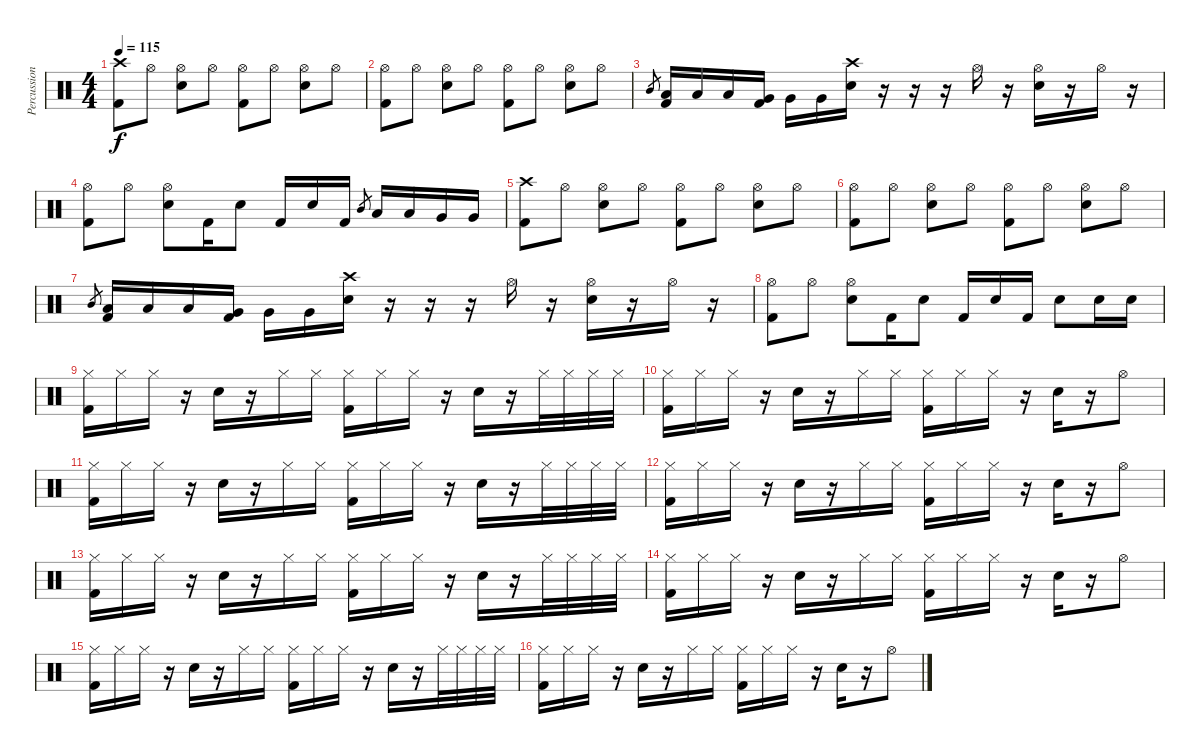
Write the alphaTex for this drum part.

\track ("Percussion" "Percussion") {instrument percussion}
\staff {score}
\articulation defaults
\ts (4 4)
\tempo 115
\clef neutral
\ks c
("Crash high (hit)" "Kick (hit) 2").8{dy f} "Hi-Hat (open)".8 ("Hi-Hat (open)" "Snare (hit) 2").8 "Hi-Hat (open)".8 ("Hi-Hat (open)" "Kick (hit) 2").8 "Hi-Hat (open)".8 ("Hi-Hat (open)" "Snare (hit) 2").8 "Hi-Hat (open)".8 |
("Hi-Hat (open)" "Kick (hit) 2").8 "Hi-Hat (open)".8 ("Hi-Hat (open)" "Snare (hit) 2").8 "Hi-Hat (open)".8 ("Hi-Hat (open)" "Kick (hit) 2").8 "Hi-Hat (open)".8 ("Hi-Hat (open)" "Snare (hit) 2").8 "Hi-Hat (open)".8 |
"Mid Tom (hit)".8{gr} ("Low Tom (hit)" "Kick (hit) 2").16 "Low Tom (hit)".16 "Low Tom (hit)".16 ("Very Low Tom (hit)" "Kick (hit) 2").16 "Very Low Tom (hit)".16 "Very Low Tom (hit)".16 ("Crash high (hit)" "Snare (hit) 2").16 r.16 r.16 r.16 "Hi-Hat (open)".16 r.16 ("Hi-Hat (open)" "Snare (hit) 2").16 r.16 "Hi-Hat (open)".16 r.16 |
("Hi-Hat (open)" "Kick (hit) 2").8 "Hi-Hat (open)".8 ("Hi-Hat (open)" "Snare (hit) 2").8 "Kick (hit) 2".16 "Snare (hit) 2".8 "Kick (hit) 2".16 "Snare (hit) 2".16 "Kick (hit) 2".16 "Mid Tom (hit)".8{gr} "Low Tom (hit)".16 "Low Tom (hit)".16 "Very Low Tom (hit)".16 "Very Low Tom (hit)".16 |
("Crash high (hit)" "Kick (hit) 2").8 "Hi-Hat (open)".8 ("Hi-Hat (open)" "Snare (hit) 2").8 "Hi-Hat (open)".8 ("Hi-Hat (open)" "Kick (hit) 2").8 "Hi-Hat (open)".8 ("Hi-Hat (open)" "Snare (hit) 2").8 "Hi-Hat (open)".8 |
("Hi-Hat (open)" "Kick (hit) 2").8 "Hi-Hat (open)".8 ("Hi-Hat (open)" "Snare (hit) 2").8 "Hi-Hat (open)".8 ("Hi-Hat (open)" "Kick (hit) 2").8 "Hi-Hat (open)".8 ("Hi-Hat (open)" "Snare (hit) 2").8 "Hi-Hat (open)".8 |
"Mid Tom (hit)".8{gr} ("Low Tom (hit)" "Kick (hit) 2").16 "Low Tom (hit)".16 "Low Tom (hit)".16 ("Very Low Tom (hit)" "Kick (hit) 2").16 "Very Low Tom (hit)".16 "Very Low Tom (hit)".16 ("Crash high (hit)" "Snare (hit) 2").16 r.16 r.16 r.16 "Hi-Hat (open)".16 r.16 ("Hi-Hat (open)" "Snare (hit) 2").16 r.16 "Hi-Hat (open)".16 r.16 |
("Hi-Hat (open)" "Kick (hit) 2").8 "Hi-Hat (open)".8 ("Hi-Hat (open)" "Snare (hit) 2").8 "Kick (hit) 2".16 "Snare (hit) 2".8 "Kick (hit) 2".16 "Snare (hit) 2".16 "Kick (hit) 2".16 "Snare (hit) 2".8 "Snare (hit) 2".16 "Snare (hit) 2".16 |
("Hi-Hat (closed)" "Kick (hit) 2").16 "Hi-Hat (closed)".16 "Hi-Hat (closed)".16 r.16 "Snare (hit) 2".16 r.16 "Hi-Hat (closed)".16 "Hi-Hat (closed)".16 ("Hi-Hat (closed)" "Kick (hit) 2").16 "Hi-Hat (closed)".16 "Hi-Hat (closed)".16 r.16 "Snare (hit) 2".16 r.16 "Hi-Hat (closed)".32 "Hi-Hat (closed)".32 "Hi-Hat (closed)".32 "Hi-Hat (closed)".32 |
("Hi-Hat (closed)" "Kick (hit) 2").16 "Hi-Hat (closed)".16 "Hi-Hat (closed)".16 r.16 "Snare (hit) 2".16 r.16 "Hi-Hat (closed)".16 "Hi-Hat (closed)".16 ("Hi-Hat (closed)" "Kick (hit) 2").16 "Hi-Hat (closed)".16 "Hi-Hat (closed)".16 r.16 "Snare (hit) 2".16 r.16 "Hi-Hat (open)".8 |
("Hi-Hat (closed)" "Kick (hit) 2").16 "Hi-Hat (closed)".16 "Hi-Hat (closed)".16 r.16 "Snare (hit) 2".16 r.16 "Hi-Hat (closed)".16 "Hi-Hat (closed)".16 ("Hi-Hat (closed)" "Kick (hit) 2").16 "Hi-Hat (closed)".16 "Hi-Hat (closed)".16 r.16 "Snare (hit) 2".16 r.16 "Hi-Hat (closed)".32 "Hi-Hat (closed)".32 "Hi-Hat (closed)".32 "Hi-Hat (closed)".32 |
("Hi-Hat (closed)" "Kick (hit) 2").16 "Hi-Hat (closed)".16 "Hi-Hat (closed)".16 r.16 "Snare (hit) 2".16 r.16 "Hi-Hat (closed)".16 "Hi-Hat (closed)".16 ("Hi-Hat (closed)" "Kick (hit) 2").16 "Hi-Hat (closed)".16 "Hi-Hat (closed)".16 r.16 "Snare (hit) 2".16 r.16 "Hi-Hat (open)".8 |
("Hi-Hat (closed)" "Kick (hit) 2").16 "Hi-Hat (closed)".16 "Hi-Hat (closed)".16 r.16 "Snare (hit) 2".16 r.16 "Hi-Hat (closed)".16 "Hi-Hat (closed)".16 ("Hi-Hat (closed)" "Kick (hit) 2").16 "Hi-Hat (closed)".16 "Hi-Hat (closed)".16 r.16 "Snare (hit) 2".16 r.16 "Hi-Hat (closed)".32 "Hi-Hat (closed)".32 "Hi-Hat (closed)".32 "Hi-Hat (closed)".32 |
("Hi-Hat (closed)" "Kick (hit) 2").16 "Hi-Hat (closed)".16 "Hi-Hat (closed)".16 r.16 "Snare (hit) 2".16 r.16 "Hi-Hat (closed)".16 "Hi-Hat (closed)".16 ("Hi-Hat (closed)" "Kick (hit) 2").16 "Hi-Hat (closed)".16 "Hi-Hat (closed)".16 r.16 "Snare (hit) 2".16 r.16 "Hi-Hat (open)".8 |
("Hi-Hat (closed)" "Kick (hit) 2").16 "Hi-Hat (closed)".16 "Hi-Hat (closed)".16 r.16 "Snare (hit) 2".16 r.16 "Hi-Hat (closed)".16 "Hi-Hat (closed)".16 ("Hi-Hat (closed)" "Kick (hit) 2").16 "Hi-Hat (closed)".16 "Hi-Hat (closed)".16 r.16 "Snare (hit) 2".16 r.16 "Hi-Hat (closed)".32 "Hi-Hat (closed)".32 "Hi-Hat (closed)".32 "Hi-Hat (closed)".32 |
("Hi-Hat (closed)" "Kick (hit) 2").16 "Hi-Hat (closed)".16 "Hi-Hat (closed)".16 r.16 "Snare (hit) 2".16 r.16 "Hi-Hat (closed)".16 "Hi-Hat (closed)".16 ("Hi-Hat (closed)" "Kick (hit) 2").16 "Hi-Hat (closed)".16 "Hi-Hat (closed)".16 r.16 "Snare (hit) 2".16 r.16 "Hi-Hat (open)".8
